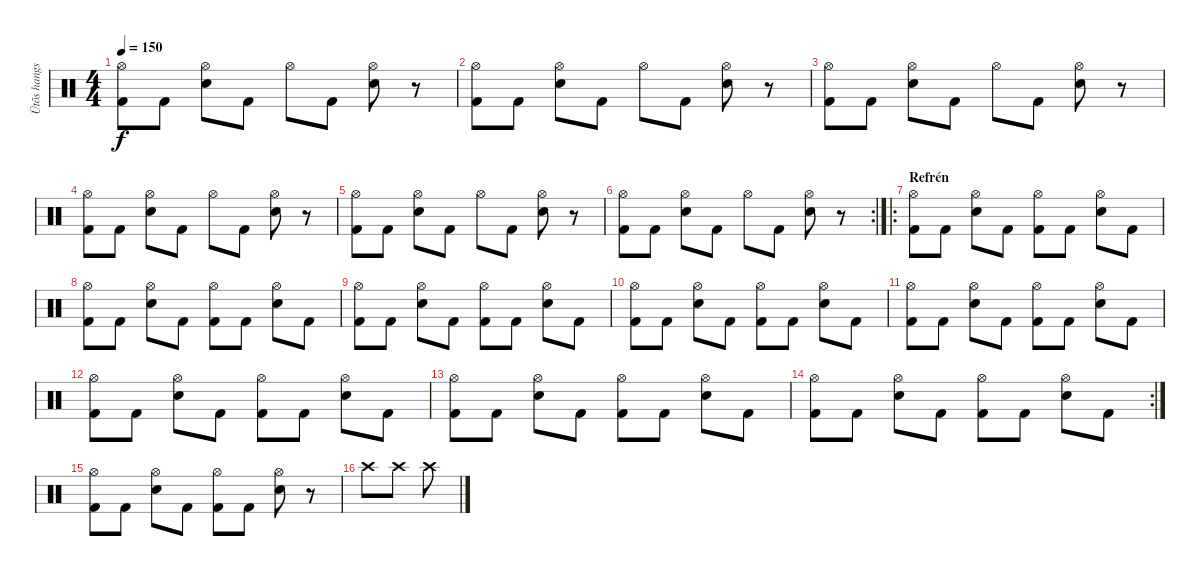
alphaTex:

\track ("Ütõs hangszer" "Ütõs hangs") {instrument percussion}
\staff {score}
\articulation defaults
\ts (4 4)
\tempo 150
\clef neutral
\ks c
("Hi-Hat (open)" "Kick (hit) 2").8{dy f} "Kick (hit) 2".8 ("Hi-Hat (open)" "Electric Snare (hit)").8 "Kick (hit) 2".8 "Hi-Hat (open)".8 "Kick (hit) 2".8 ("Hi-Hat (open)" "Electric Snare (hit)").8 r.8 |
("Hi-Hat (open)" "Kick (hit) 2").8 "Kick (hit) 2".8 ("Hi-Hat (open)" "Electric Snare (hit)").8 "Kick (hit) 2".8 "Hi-Hat (open)".8 "Kick (hit) 2".8 ("Hi-Hat (open)" "Electric Snare (hit)").8 r.8 |
("Hi-Hat (open)" "Kick (hit) 2").8 "Kick (hit) 2".8 ("Hi-Hat (open)" "Electric Snare (hit)").8 "Kick (hit) 2".8 "Hi-Hat (open)".8 "Kick (hit) 2".8 ("Hi-Hat (open)" "Electric Snare (hit)").8 r.8 |
("Hi-Hat (open)" "Kick (hit) 2").8 "Kick (hit) 2".8 ("Hi-Hat (open)" "Electric Snare (hit)").8 "Kick (hit) 2".8 "Hi-Hat (open)".8 "Kick (hit) 2".8 ("Hi-Hat (open)" "Electric Snare (hit)").8 r.8 |
("Hi-Hat (open)" "Kick (hit) 2").8 "Kick (hit) 2".8 ("Hi-Hat (open)" "Electric Snare (hit)").8 "Kick (hit) 2".8 "Hi-Hat (open)".8 "Kick (hit) 2".8 ("Hi-Hat (open)" "Electric Snare (hit)").8 r.8 |
\rc 2
("Hi-Hat (open)" "Kick (hit) 2").8 "Kick (hit) 2".8 ("Hi-Hat (open)" "Electric Snare (hit)").8 "Kick (hit) 2".8 "Hi-Hat (open)".8 "Kick (hit) 2".8 ("Hi-Hat (open)" "Electric Snare (hit)").8 r.8 |
\ro
\section ("" "Refrén")
("Hi-Hat (open)" "Kick (hit) 2").8 "Kick (hit) 2".8 ("Hi-Hat (open)" "Electric Snare (hit)").8 "Kick (hit) 2".8 ("Hi-Hat (open)" "Kick (hit) 2").8 "Kick (hit) 2".8 ("Hi-Hat (open)" "Electric Snare (hit)").8 "Kick (hit) 2".8 |
("Hi-Hat (open)" "Kick (hit) 2").8 "Kick (hit) 2".8 ("Hi-Hat (open)" "Electric Snare (hit)").8 "Kick (hit) 2".8 ("Hi-Hat (open)" "Kick (hit) 2").8 "Kick (hit) 2".8 ("Hi-Hat (open)" "Electric Snare (hit)").8 "Kick (hit) 2".8 |
("Hi-Hat (open)" "Kick (hit) 2").8 "Kick (hit) 2".8 ("Hi-Hat (open)" "Electric Snare (hit)").8 "Kick (hit) 2".8 ("Hi-Hat (open)" "Kick (hit) 2").8 "Kick (hit) 2".8 ("Hi-Hat (open)" "Electric Snare (hit)").8 "Kick (hit) 2".8 |
("Hi-Hat (open)" "Kick (hit) 2").8 "Kick (hit) 2".8 ("Hi-Hat (open)" "Electric Snare (hit)").8 "Kick (hit) 2".8 ("Hi-Hat (open)" "Kick (hit) 2").8 "Kick (hit) 2".8 ("Hi-Hat (open)" "Electric Snare (hit)").8 "Kick (hit) 2".8 |
("Hi-Hat (open)" "Kick (hit) 2").8 "Kick (hit) 2".8 ("Hi-Hat (open)" "Electric Snare (hit)").8 "Kick (hit) 2".8 ("Hi-Hat (open)" "Kick (hit) 2").8 "Kick (hit) 2".8 ("Hi-Hat (open)" "Electric Snare (hit)").8 "Kick (hit) 2".8 |
("Hi-Hat (open)" "Kick (hit) 2").8 "Kick (hit) 2".8 ("Hi-Hat (open)" "Electric Snare (hit)").8 "Kick (hit) 2".8 ("Hi-Hat (open)" "Kick (hit) 2").8 "Kick (hit) 2".8 ("Hi-Hat (open)" "Electric Snare (hit)").8 "Kick (hit) 2".8 |
("Hi-Hat (open)" "Kick (hit) 2").8 "Kick (hit) 2".8 ("Hi-Hat (open)" "Electric Snare (hit)").8 "Kick (hit) 2".8 ("Hi-Hat (open)" "Kick (hit) 2").8 "Kick (hit) 2".8 ("Hi-Hat (open)" "Electric Snare (hit)").8 "Kick (hit) 2".8 |
\rc 2
("Hi-Hat (open)" "Kick (hit) 2").8 "Kick (hit) 2".8 ("Hi-Hat (open)" "Electric Snare (hit)").8 "Kick (hit) 2".8 ("Hi-Hat (open)" "Kick (hit) 2").8 "Kick (hit) 2".8 ("Hi-Hat (open)" "Electric Snare (hit)").8 "Kick (hit) 2".8 |
("Hi-Hat (open)" "Kick (hit) 2").8 "Kick (hit) 2".8 ("Hi-Hat (open)" "Electric Snare (hit)").8 "Kick (hit) 2".8 ("Hi-Hat (open)" "Kick (hit) 2").8 "Kick (hit) 2".8 ("Hi-Hat (open)" "Electric Snare (hit)").8 r.8 |
"Crash high (hit)".8 "Crash high (hit)".8 "Crash high (hit)".8
